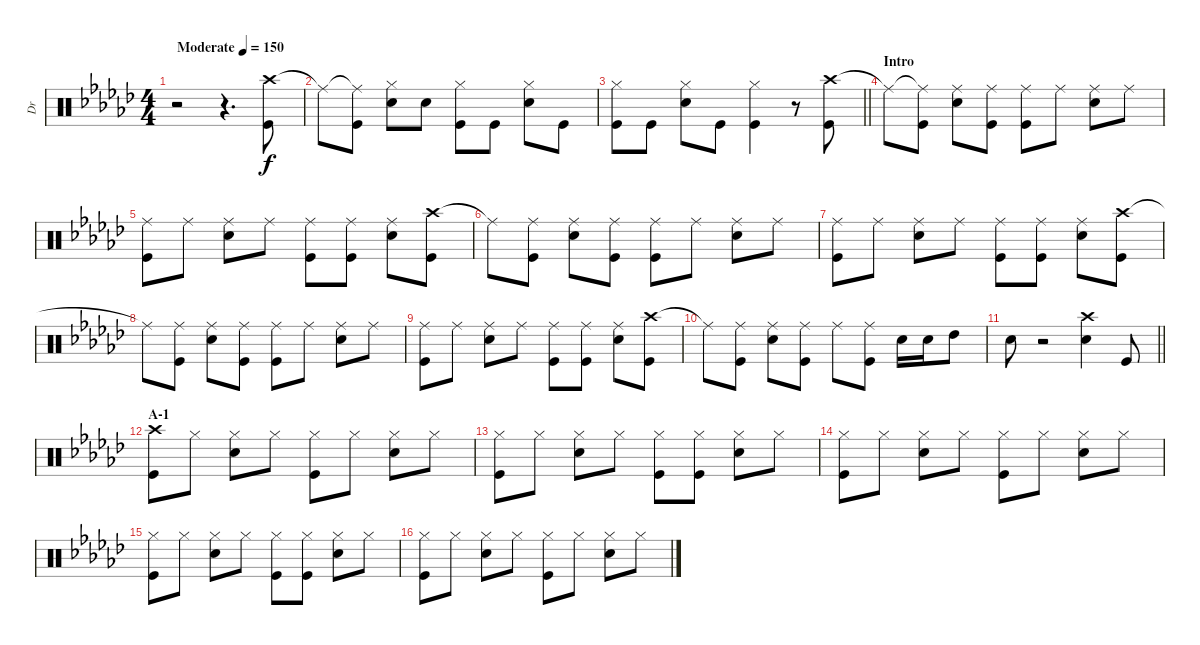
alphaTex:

\track ("Dr" "Dr") {instrument percussion}
\staff {score}
\articulation defaults
\ts (4 4)
\tempo (150 "Moderate")
\clef neutral
\ks gb
r.2{dy f} r.4{d} ("Crash high (hit)" "Kick (hit)").8 |
"Ride (middle)"{t}.8 ("Ride (middle)"{t} "Kick (hit)").8 ("Hi-Hat (closed)" "Electric Snare (hit)").8 "Electric Snare (hit)".8 ("Hi-Hat (closed)" "Kick (hit)").8 "Kick (hit)".8 ("Hi-Hat (closed)" "Electric Snare (hit)").8 "Kick (hit)".8 |
\barLineRight lightlight
("Hi-Hat (closed)" "Kick (hit)").8 "Kick (hit)".8 ("Hi-Hat (closed)" "Electric Snare (hit)").8 "Kick (hit)".8 ("Hi-Hat (closed)" "Kick (hit)").4 r.8 ("Crash high (hit)" "Kick (hit)").8 |
\section ("" "Intro")
"Ride (middle)"{t}.8 ("Ride (middle)"{t} "Kick (hit)").8 ("Ride (middle)" "Electric Snare (hit)").8 ("Ride (middle)" "Kick (hit)").8 ("Ride (middle)" "Kick (hit)").8 "Ride (middle)".8 ("Ride (middle)" "Electric Snare (hit)").8 "Ride (middle)".8 |
("Ride (middle)" "Kick (hit)").8 "Ride (middle)".8 ("Ride (middle)" "Electric Snare (hit)").8 "Ride (middle)".8 ("Ride (middle)" "Kick (hit)").8 ("Ride (middle)" "Kick (hit)").8 ("Ride (middle)" "Electric Snare (hit)").8 ("Crash high (hit)" "Kick (hit)").8 |
"Ride (middle)"{t}.8 ("Ride (middle)" "Kick (hit)").8 ("Ride (middle)" "Electric Snare (hit)").8 ("Ride (middle)" "Kick (hit)").8 ("Ride (middle)" "Kick (hit)").8 "Ride (middle)".8 ("Ride (middle)" "Electric Snare (hit)").8 "Ride (middle)".8 |
("Ride (middle)" "Kick (hit)").8 "Ride (middle)".8 ("Ride (middle)" "Electric Snare (hit)").8 "Ride (middle)".8 ("Ride (middle)" "Kick (hit)").8 ("Ride (middle)" "Kick (hit)").8 ("Ride (middle)" "Electric Snare (hit)").8 ("Crash high (hit)" "Kick (hit)").8 |
"Ride (middle)"{t}.8 ("Ride (middle)" "Kick (hit)").8 ("Ride (middle)" "Electric Snare (hit)").8 ("Ride (middle)" "Kick (hit)").8 ("Ride (middle)" "Kick (hit)").8 "Ride (middle)".8 ("Ride (middle)" "Electric Snare (hit)").8 "Ride (middle)".8 |
("Ride (middle)" "Kick (hit)").8 "Ride (middle)".8 ("Ride (middle)" "Electric Snare (hit)").8 "Ride (middle)".8 ("Ride (middle)" "Kick (hit)").8 ("Ride (middle)" "Kick (hit)").8 ("Ride (middle)" "Electric Snare (hit)").8 ("Crash high (hit)" "Kick (hit)").8 |
"Ride (middle)"{t}.8 ("Ride (middle)" "Kick (hit)").8 ("Ride (middle)" "Electric Snare (hit)").8 ("Ride (middle)" "Kick (hit)").8 "Ride (middle)".8 ("Ride (middle)" "Kick (hit)").8 "Electric Snare (hit)".16 "Electric Snare (hit)".16 "High Tom (hit)".8 |
\barLineRight lightlight "Electric Snare (hit)".8
r.2 ("Crash high (hit)" "Electric Snare (hit)").4 "Kick (hit)".8 |
\section ("" "A-1")
("Crash high (hit)" "Kick (hit)").8 "Hi-Hat (closed)".8 ("Hi-Hat (closed)" "Electric Snare (hit)").8 "Hi-Hat (closed)".8 ("Hi-Hat (closed)" "Kick (hit)").8 "Hi-Hat (closed)".8 ("Hi-Hat (closed)" "Electric Snare (hit)").8 "Hi-Hat (closed)".8 |
("Hi-Hat (closed)" "Kick (hit)").8 "Hi-Hat (closed)".8 ("Hi-Hat (closed)" "Electric Snare (hit)").8 "Hi-Hat (closed)".8 ("Hi-Hat (closed)" "Kick (hit)").8 ("Hi-Hat (closed)" "Kick (hit)").8 ("Hi-Hat (closed)" "Electric Snare (hit)").8 "Hi-Hat (closed)".8 |
("Hi-Hat (closed)" "Kick (hit)").8 "Hi-Hat (closed)".8 ("Hi-Hat (closed)" "Electric Snare (hit)").8 "Hi-Hat (closed)".8 ("Hi-Hat (closed)" "Kick (hit)").8 "Hi-Hat (closed)".8 ("Hi-Hat (closed)" "Electric Snare (hit)").8 "Hi-Hat (closed)".8 |
("Hi-Hat (closed)" "Kick (hit)").8 "Hi-Hat (closed)".8 ("Hi-Hat (closed)" "Electric Snare (hit)").8 "Hi-Hat (closed)".8 ("Hi-Hat (closed)" "Kick (hit)").8 ("Hi-Hat (closed)" "Kick (hit)").8 ("Hi-Hat (closed)" "Electric Snare (hit)").8 "Hi-Hat (closed)".8 |
("Hi-Hat (closed)" "Kick (hit)").8 "Hi-Hat (closed)".8 ("Hi-Hat (closed)" "Electric Snare (hit)").8 "Hi-Hat (closed)".8 ("Hi-Hat (closed)" "Kick (hit)").8 "Hi-Hat (closed)".8 ("Hi-Hat (closed)" "Electric Snare (hit)").8 "Hi-Hat (closed)".8
